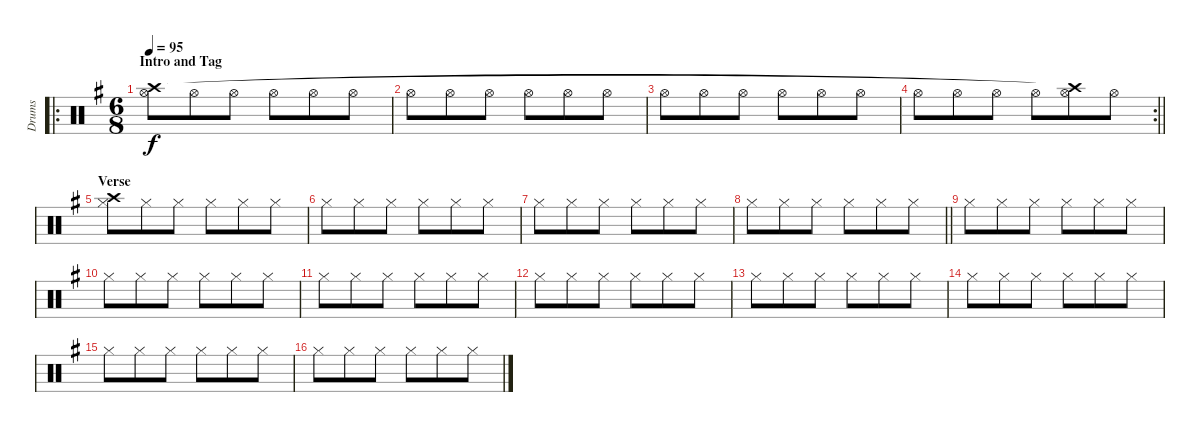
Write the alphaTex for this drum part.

\track ("Drums" "Drums") {instrument percussion}
\staff {score}
\articulation defaults
\ro
\ts (6 8)
\section ("" "Intro and Tag")
\tempo 95
\clef neutral
\ks g
("Hi-Hat (open)" "Crash high (hit)").8{dy f} "Hi-Hat (open)".8 "Hi-Hat (open)".8 "Hi-Hat (open)".8 "Hi-Hat (open)".8 "Hi-Hat (open)".8 |
"Hi-Hat (open)".8 "Hi-Hat (open)".8 "Hi-Hat (open)".8 "Hi-Hat (open)".8 "Hi-Hat (open)".8 "Hi-Hat (open)".8 |
"Hi-Hat (open)".8 "Hi-Hat (open)".8 "Hi-Hat (open)".8 "Hi-Hat (open)".8 "Hi-Hat (open)".8 "Hi-Hat (open)".8 |
\rc 2
\barLineRight lightlight "Hi-Hat (open)".8 "Hi-Hat (open)".8 "Hi-Hat (open)".8 "Hi-Hat (open)".8
("Hi-Hat (open)" "Crash high (hit)"{t}).8 "Hi-Hat (open)".8 |
\section ("" "Verse")
("Crash high (hit)" "Hi-Hat (closed)").8 "Hi-Hat (closed)".8 "Hi-Hat (closed)".8 "Hi-Hat (closed)".8 "Hi-Hat (closed)".8 "Hi-Hat (closed)".8 |
"Hi-Hat (closed)".8 "Hi-Hat (closed)".8 "Hi-Hat (closed)".8 "Hi-Hat (closed)".8 "Hi-Hat (closed)".8 "Hi-Hat (closed)".8 |
"Hi-Hat (closed)".8 "Hi-Hat (closed)".8 "Hi-Hat (closed)".8 "Hi-Hat (closed)".8 "Hi-Hat (closed)".8 "Hi-Hat (closed)".8 |
\barLineRight lightlight "Hi-Hat (closed)".8 "Hi-Hat (closed)".8 "Hi-Hat (closed)".8 "Hi-Hat (closed)".8 "Hi-Hat (closed)".8 "Hi-Hat (closed)".8
|
"Hi-Hat (closed)".8 "Hi-Hat (closed)".8 "Hi-Hat (closed)".8 "Hi-Hat (closed)".8 "Hi-Hat (closed)".8 "Hi-Hat (closed)".8 |
"Hi-Hat (closed)".8 "Hi-Hat (closed)".8 "Hi-Hat (closed)".8 "Hi-Hat (closed)".8 "Hi-Hat (closed)".8 "Hi-Hat (closed)".8 |
"Hi-Hat (closed)".8 "Hi-Hat (closed)".8 "Hi-Hat (closed)".8 "Hi-Hat (closed)".8 "Hi-Hat (closed)".8 "Hi-Hat (closed)".8 |
"Hi-Hat (closed)".8 "Hi-Hat (closed)".8 "Hi-Hat (closed)".8 "Hi-Hat (closed)".8 "Hi-Hat (closed)".8 "Hi-Hat (closed)".8 |
"Hi-Hat (closed)".8 "Hi-Hat (closed)".8 "Hi-Hat (closed)".8 "Hi-Hat (closed)".8 "Hi-Hat (closed)".8 "Hi-Hat (closed)".8 |
"Hi-Hat (closed)".8 "Hi-Hat (closed)".8 "Hi-Hat (closed)".8 "Hi-Hat (closed)".8 "Hi-Hat (closed)".8 "Hi-Hat (closed)".8 |
"Hi-Hat (closed)".8 "Hi-Hat (closed)".8 "Hi-Hat (closed)".8 "Hi-Hat (closed)".8 "Hi-Hat (closed)".8 "Hi-Hat (closed)".8 |
"Hi-Hat (closed)".8 "Hi-Hat (closed)".8 "Hi-Hat (closed)".8 "Hi-Hat (closed)".8 "Hi-Hat (closed)".8 "Hi-Hat (closed)".8
